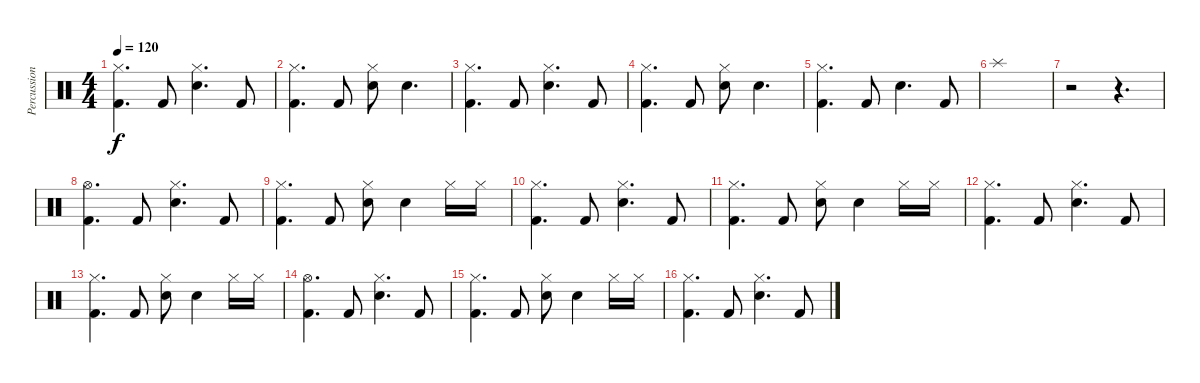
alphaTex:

\track ("Percussions" "Percussion") {instrument percussion}
\staff {score}
\articulation defaults
\ts (4 4)
\tempo 120
\clef neutral
\ks c
("Hi-Hat (closed)" "Kick (hit) 2").4{d dy f} "Kick (hit) 2".8 ("Hi-Hat (closed)" "Snare (hit) 2").4{d} "Kick (hit) 2".8 |
("Hi-Hat (closed)" "Kick (hit) 2").4{d} "Kick (hit) 2".8 ("Hi-Hat (closed)" "Snare (hit) 2").8 "Snare (hit) 2".4{d} |
("Hi-Hat (closed)" "Kick (hit) 2").4{d} "Kick (hit) 2".8 ("Hi-Hat (closed)" "Snare (hit) 2").4{d} "Kick (hit) 2".8 |
("Hi-Hat (closed)" "Kick (hit) 2").4{d} "Kick (hit) 2".8 ("Hi-Hat (closed)" "Snare (hit) 2").8 "Snare (hit) 2".4{d} |
("Hi-Hat (closed)" "Kick (hit) 2").4{d} "Kick (hit) 2".8 "Snare (hit) 2".4{d} "Kick (hit) 2".8 |
"Splash (hit)".1 |
r.2 r.4{d} |
("Hi-Hat (open)" "Kick (hit) 2").4{d} "Kick (hit) 2".8 ("Hi-Hat (closed)" "Snare (hit) 2").4{d} "Kick (hit) 2".8 |
("Hi-Hat (closed)" "Kick (hit) 2").4{d} "Kick (hit) 2".8 ("Hi-Hat (closed)" "Snare (hit) 2").8 "Snare (hit) 2".4 "Hi-Hat (closed)".16 "Hi-Hat (closed)".16 |
("Hi-Hat (closed)" "Kick (hit) 2").4{d} "Kick (hit) 2".8 ("Hi-Hat (closed)" "Snare (hit) 2").4{d} "Kick (hit) 2".8 |
("Hi-Hat (closed)" "Kick (hit) 2").4{d} "Kick (hit) 2".8 ("Hi-Hat (closed)" "Snare (hit) 2").8 "Snare (hit) 2".4 "Hi-Hat (closed)".16 "Hi-Hat (closed)".16 |
("Hi-Hat (closed)" "Kick (hit) 2").4{d} "Kick (hit) 2".8 ("Hi-Hat (closed)" "Snare (hit) 2").4{d} "Kick (hit) 2".8 |
("Hi-Hat (closed)" "Kick (hit) 2").4{d} "Kick (hit) 2".8 ("Hi-Hat (closed)" "Snare (hit) 2").8 "Snare (hit) 2".4 "Hi-Hat (closed)".16 "Hi-Hat (closed)".16 |
("Hi-Hat (open)" "Kick (hit) 2").4{d} "Kick (hit) 2".8 ("Hi-Hat (closed)" "Snare (hit) 2").4{d} "Kick (hit) 2".8 |
("Hi-Hat (closed)" "Kick (hit) 2").4{d} "Kick (hit) 2".8 ("Hi-Hat (closed)" "Snare (hit) 2").8 "Snare (hit) 2".4 "Hi-Hat (closed)".16 "Hi-Hat (closed)".16 |
("Hi-Hat (closed)" "Kick (hit) 2").4{d} "Kick (hit) 2".8 ("Hi-Hat (closed)" "Snare (hit) 2").4{d} "Kick (hit) 2".8
